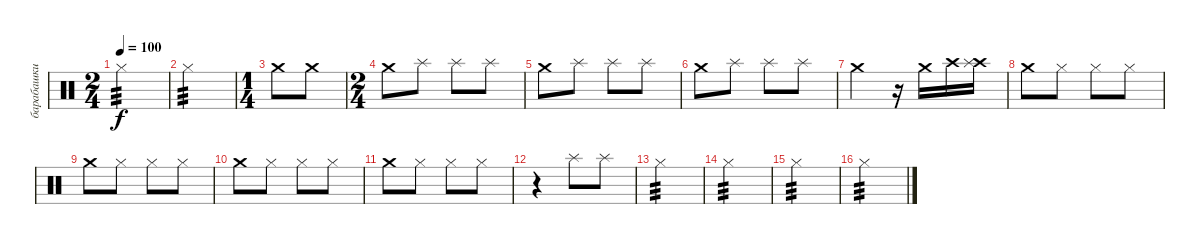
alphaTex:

\track ("барабашки high" "барабашки ") {instrument percussion}
\staff {score}
\articulation defaults
\ts (2 4)
\tempo 100
\clef neutral
\ks c "Hi-Hat (closed)".2{tp 3 dy f}
|
"Hi-Hat (closed)".2{tp 3} |
\ts (1 4)
"Crash medium (hit)".8 "Crash medium (hit)".8 |
\ts (2 4)
"Crash medium (hit)".8 "Splash (hit)".8 "Splash (hit)".8 "Splash (hit)".8 |
"Crash medium (hit)".8 "Splash (hit)".8 "Splash (hit)".8 "Splash (hit)".8 |
"Crash medium (hit)".8 "Splash (hit)".8 "Splash (hit)".8 "Splash (hit)".8 |
"Crash medium (hit)".4 r.16 "Crash medium (hit)".16 "Crash high (hit)".16 ("Crash high (hit)" "Splash (hit)").16 |
"Crash medium (hit)".8 "Hi-Hat (closed)".8 "Hi-Hat (closed)".8 "Hi-Hat (closed)".8 |
"Crash medium (hit)".8 "Hi-Hat (closed)".8 "Hi-Hat (closed)".8 "Hi-Hat (closed)".8 |
"Crash medium (hit)".8 "Hi-Hat (closed)".8 "Hi-Hat (closed)".8 "Hi-Hat (closed)".8 |
"Crash medium (hit)".8 "Hi-Hat (closed)".8 "Hi-Hat (closed)".8 "Hi-Hat (closed)".8 |
r.4 "Splash (hit)".8 "Splash (hit)".8 |
"Hi-Hat (closed)".2{tp 3} |
"Hi-Hat (closed)".2{tp 3} |
"Hi-Hat (closed)".2{tp 3} |
"Hi-Hat (closed)".2{tp 3}
